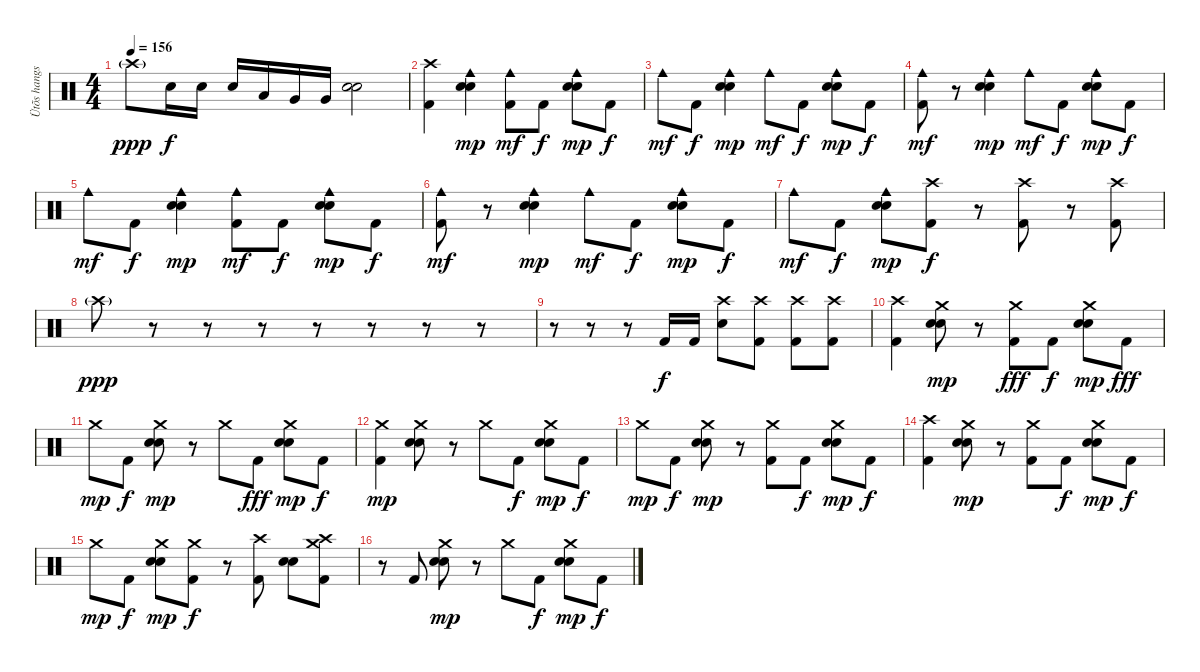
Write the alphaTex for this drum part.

\track ("Ütõs hangszer" "Ütõs hangs") {instrument percussion}
\staff {score}
\articulation defaults
\ts (4 4)
\tempo 156
\clef neutral
\ks c "Crash high (hit)"{g}.8{dy ppp} "Electric Snare (hit)".16{dy f} "Electric Snare (hit)".16 "Electric Snare (hit)".16 "Low Tom (hit)".16 "Very Low Tom (hit)".16 "Very Low Tom (hit)".16
("Snare (hit) 2" "Electric Snare (hit)").2 |
("Crash high (hit)" "Kick (hit) 2").4 ("Cowbell medium (hit)" "Snare (hit) 2" "Electric Snare (hit)").4{dy mp} ("Cowbell medium (hit)" "Kick (hit) 2").8{dy mf} "Kick (hit) 2".8{dy f} ("Cowbell medium (hit)" "Snare (hit) 2" "Electric Snare (hit)").8{dy mp} "Kick (hit) 2".8{dy f} |
"Cowbell medium (hit)".8{dy mf} "Kick (hit) 2".8{dy f} ("Cowbell medium (hit)" "Snare (hit) 2" "Electric Snare (hit)").4{dy mp} "Cowbell medium (hit)".8{dy mf} "Kick (hit) 2".8{dy f} ("Cowbell medium (hit)" "Snare (hit) 2" "Electric Snare (hit)").8{dy mp} "Kick (hit) 2".8{dy f} |
("Cowbell medium (hit)" "Kick (hit) 2").8{dy mf} r.8 ("Cowbell medium (hit)" "Snare (hit) 2" "Electric Snare (hit)").4{dy mp} "Cowbell medium (hit)".8{dy mf} "Kick (hit) 2".8{dy f} ("Cowbell medium (hit)" "Snare (hit) 2" "Electric Snare (hit)").8{dy mp} "Kick (hit) 2".8{dy f} |
"Cowbell medium (hit)".8{dy mf} "Kick (hit) 2".8{dy f} ("Cowbell medium (hit)" "Snare (hit) 2" "Electric Snare (hit)").4{dy mp} ("Cowbell medium (hit)" "Kick (hit) 2").8{dy mf} "Kick (hit) 2".8{dy f} ("Cowbell medium (hit)" "Snare (hit) 2" "Electric Snare (hit)").8{dy mp} "Kick (hit) 2".8{dy f} |
("Cowbell medium (hit)" "Kick (hit) 2").8{dy mf} r.8 ("Cowbell medium (hit)" "Snare (hit) 2" "Electric Snare (hit)").4{dy mp} "Cowbell medium (hit)".8{dy mf} "Kick (hit) 2".8{dy f} ("Cowbell medium (hit)" "Snare (hit) 2" "Electric Snare (hit)").8{dy mp} "Kick (hit) 2".8{dy f} |
"Cowbell medium (hit)".8{dy mf} "Kick (hit) 2".8{dy f} ("Cowbell medium (hit)" "Snare (hit) 2" "Electric Snare (hit)").8{dy mp} ("Crash high (hit)" "Kick (hit) 2").8{dy f} r.8{volume 2} ("Crash high (hit)" "Kick (hit) 2").8{volume 13} r.8{volume 3} ("Crash high (hit)" "Kick (hit) 2").8{volume 13} |
"Crash high (hit)"{g}.8{dy ppp} r.8 r.8 r.8 r.8 r.8 r.8 r.8 |
r.8 r.8 r.8 "Kick (hit) 2".16{dy f} "Kick (hit) 2".16 ("Crash high (hit)" "Electric Snare (hit)").8 ("Crash high (hit)" "Kick (hit) 2").8 ("Crash high (hit)" "Kick (hit) 2").8 ("Crash high (hit)" "Kick (hit) 2").8 |
("Crash high (hit)" "Kick (hit) 2").4 ("Crash medium (hit)" "Snare (hit) 2" "Electric Snare (hit)").8{dy mp} r.8 ("Crash medium (hit)" "Kick (hit) 2").8{dy fff} "Kick (hit) 2".8{dy f} ("Crash medium (hit)" "Snare (hit) 2" "Electric Snare (hit)").8{dy mp} "Kick (hit) 2".8{dy fff} |
"Crash medium (hit)".8{dy mp} "Kick (hit) 2".8{dy f} ("Crash medium (hit)" "Snare (hit) 2" "Electric Snare (hit)").8{dy mp} r.8 "Crash medium (hit)".8 "Kick (hit) 2".8{dy fff} ("Crash medium (hit)" "Snare (hit) 2" "Electric Snare (hit)").8{dy mp} "Kick (hit) 2".8{dy f} |
("Crash medium (hit)" "Kick (hit) 2").4{dy mp} ("Crash medium (hit)" "Snare (hit) 2" "Electric Snare (hit)").8 r.8 "Crash medium (hit)".8 "Kick (hit) 2".8{dy f} ("Crash medium (hit)" "Snare (hit) 2" "Electric Snare (hit)").8{dy mp} "Kick (hit) 2".8{dy f} |
"Crash medium (hit)".8{dy mp} "Kick (hit) 2".8{dy f} ("Crash medium (hit)" "Snare (hit) 2" "Electric Snare (hit)").8{dy mp} r.8 ("Crash medium (hit)" "Kick (hit) 2").8 "Kick (hit) 2".8{dy f} ("Crash medium (hit)" "Snare (hit) 2" "Electric Snare (hit)").8{dy mp} "Kick (hit) 2".8{dy f} |
("Crash high (hit)" "Kick (hit) 2").4 ("Crash medium (hit)" "Snare (hit) 2" "Electric Snare (hit)").8{dy mp} r.8 ("Crash medium (hit)" "Kick (hit) 2").8 "Kick (hit) 2".8{dy f} ("Crash medium (hit)" "Snare (hit) 2" "Electric Snare (hit)").8{dy mp} "Kick (hit) 2".8{dy f} |
"Crash medium (hit)".8{dy mp} "Kick (hit) 2".8{dy f} ("Crash medium (hit)" "Snare (hit) 2" "Electric Snare (hit)").8{dy mp} ("Crash medium (hit)" "Kick (hit) 2").8{dy f} r.8 ("Crash high (hit)" "Kick (hit) 2").8 ("Snare (hit) 2" "Electric Snare (hit)").8 ("Crash high (hit)" "Crash medium (hit)" "Kick (hit) 2").8 |
r.8 "Kick (hit) 2".8 ("Crash medium (hit)" "Snare (hit) 2" "Electric Snare (hit)").8{dy mp} r.8 "Crash medium (hit)".8 "Kick (hit) 2".8{dy f} ("Crash medium (hit)" "Snare (hit) 2" "Electric Snare (hit)").8{dy mp} "Kick (hit) 2".8{dy f}
